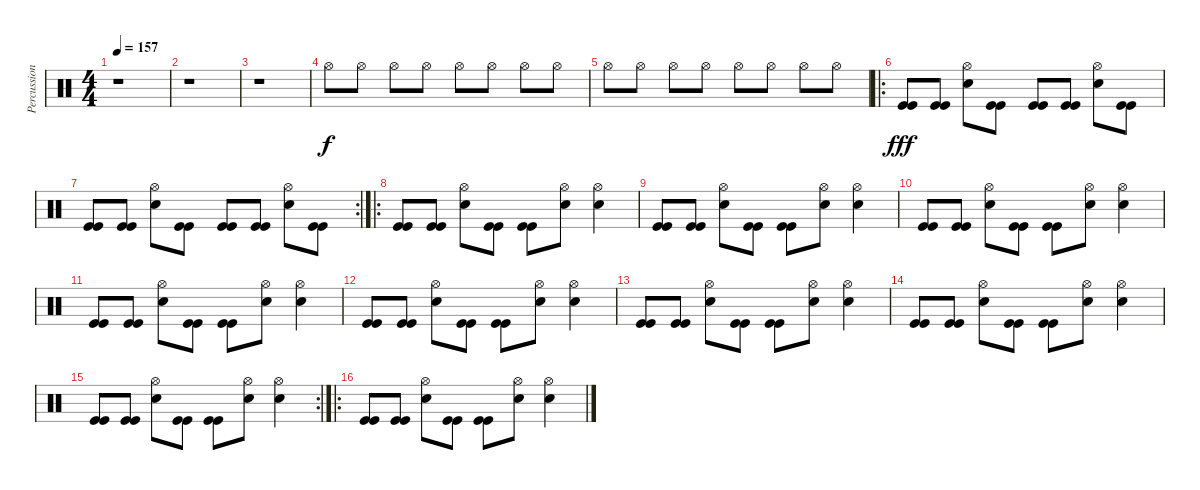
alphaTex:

\track ("Percussions" "Percussion") {instrument percussion}
\staff {score}
\articulation defaults
\ts (4 4)
\tempo 157
\clef neutral
\ks c
r.1{dy f} |
r.1 |
r.1 |
"Hi-Hat (open)".8 "Hi-Hat (open)".8 "Hi-Hat (open)".8 "Hi-Hat (open)".8 "Hi-Hat (open)".8 "Hi-Hat (open)".8 "Hi-Hat (open)".8 "Hi-Hat (open)".8 |
"Hi-Hat (open)".8 "Hi-Hat (open)".8 "Hi-Hat (open)".8 "Hi-Hat (open)".8 "Hi-Hat (open)".8 "Hi-Hat (open)".8 "Hi-Hat (open)".8 "Hi-Hat (open)".8 |
\ro
("Kick (hit)" "Kick (hit)").8{dy fff} ("Kick (hit)" "Kick (hit)").8 ("Snare (hit) 2" "Hi-Hat (open)").8 ("Kick (hit)" "Kick (hit)").8 ("Kick (hit)" "Kick (hit)").8 ("Kick (hit)" "Kick (hit)").8 ("Snare (hit) 2" "Hi-Hat (open)").8 ("Kick (hit)" "Kick (hit)").8 |
\rc 2
("Kick (hit)" "Kick (hit)").8 ("Kick (hit)" "Kick (hit)").8 ("Snare (hit) 2" "Hi-Hat (open)").8 ("Kick (hit)" "Kick (hit)").8 ("Kick (hit)" "Kick (hit)").8 ("Kick (hit)" "Kick (hit)").8 ("Snare (hit) 2" "Hi-Hat (open)").8 ("Kick (hit)" "Kick (hit)").8 |
\ro
("Kick (hit)" "Kick (hit)").8 ("Kick (hit)" "Kick (hit)").8 ("Snare (hit) 2" "Hi-Hat (open)").8 ("Kick (hit)" "Kick (hit)").8 ("Kick (hit)" "Kick (hit)").8 ("Snare (hit) 2" "Hi-Hat (open)").8 ("Snare (hit) 2" "Hi-Hat (open)").4 |
("Kick (hit)" "Kick (hit)").8 ("Kick (hit)" "Kick (hit)").8 ("Snare (hit) 2" "Hi-Hat (open)").8 ("Kick (hit)" "Kick (hit)").8 ("Kick (hit)" "Kick (hit)").8 ("Snare (hit) 2" "Hi-Hat (open)").8 ("Snare (hit) 2" "Hi-Hat (open)").4 |
("Kick (hit)" "Kick (hit)").8 ("Kick (hit)" "Kick (hit)").8 ("Snare (hit) 2" "Hi-Hat (open)").8 ("Kick (hit)" "Kick (hit)").8 ("Kick (hit)" "Kick (hit)").8 ("Snare (hit) 2" "Hi-Hat (open)").8 ("Snare (hit) 2" "Hi-Hat (open)").4 |
("Kick (hit)" "Kick (hit)").8 ("Kick (hit)" "Kick (hit)").8 ("Snare (hit) 2" "Hi-Hat (open)").8 ("Kick (hit)" "Kick (hit)").8 ("Kick (hit)" "Kick (hit)").8 ("Snare (hit) 2" "Hi-Hat (open)").8 ("Snare (hit) 2" "Hi-Hat (open)").4 |
("Kick (hit)" "Kick (hit)").8 ("Kick (hit)" "Kick (hit)").8 ("Snare (hit) 2" "Hi-Hat (open)").8 ("Kick (hit)" "Kick (hit)").8 ("Kick (hit)" "Kick (hit)").8 ("Snare (hit) 2" "Hi-Hat (open)").8 ("Snare (hit) 2" "Hi-Hat (open)").4 |
("Kick (hit)" "Kick (hit)").8 ("Kick (hit)" "Kick (hit)").8 ("Snare (hit) 2" "Hi-Hat (open)").8 ("Kick (hit)" "Kick (hit)").8 ("Kick (hit)" "Kick (hit)").8 ("Snare (hit) 2" "Hi-Hat (open)").8 ("Snare (hit) 2" "Hi-Hat (open)").4 |
("Kick (hit)" "Kick (hit)").8 ("Kick (hit)" "Kick (hit)").8 ("Snare (hit) 2" "Hi-Hat (open)").8 ("Kick (hit)" "Kick (hit)").8 ("Kick (hit)" "Kick (hit)").8 ("Snare (hit) 2" "Hi-Hat (open)").8 ("Snare (hit) 2" "Hi-Hat (open)").4 |
\rc 2
("Kick (hit)" "Kick (hit)").8 ("Kick (hit)" "Kick (hit)").8 ("Snare (hit) 2" "Hi-Hat (open)").8 ("Kick (hit)" "Kick (hit)").8 ("Kick (hit)" "Kick (hit)").8 ("Snare (hit) 2" "Hi-Hat (open)").8 ("Snare (hit) 2" "Hi-Hat (open)").4 |
\ro
("Kick (hit)" "Kick (hit)").8 ("Kick (hit)" "Kick (hit)").8 ("Snare (hit) 2" "Hi-Hat (open)").8 ("Kick (hit)" "Kick (hit)").8 ("Kick (hit)" "Kick (hit)").8 ("Snare (hit) 2" "Hi-Hat (open)").8 ("Snare (hit) 2" "Hi-Hat (open)").4
